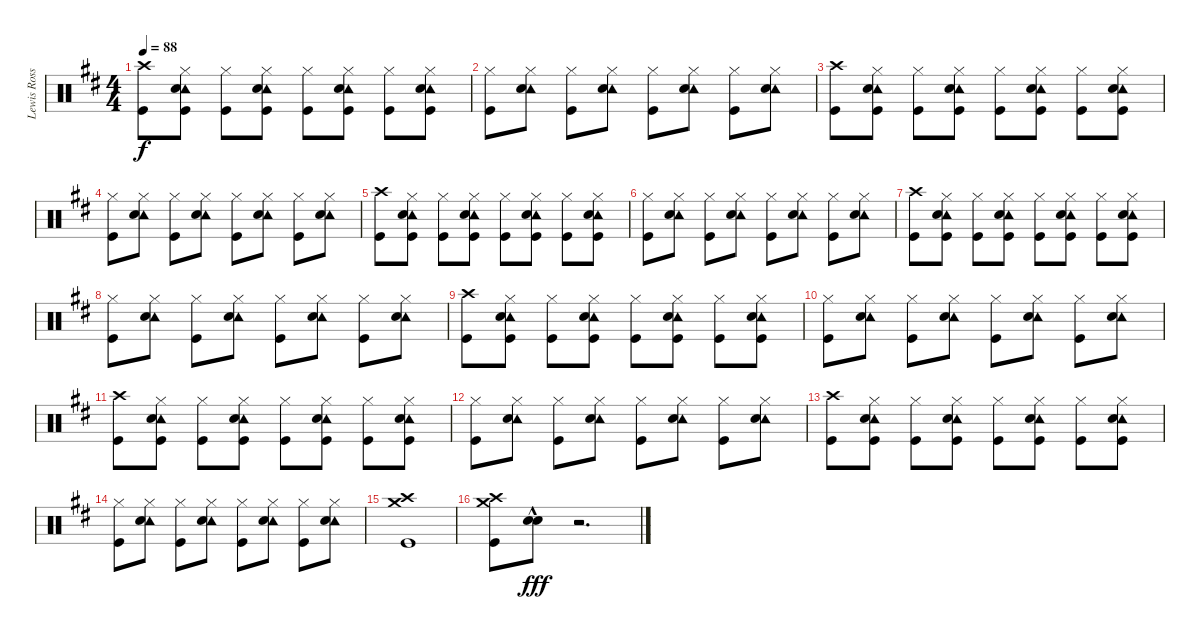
\track ("Lewis Ross Drums" "Lewis Ross") {instrument percussion}
\staff {score}
\articulation defaults
\ts (4 4)
\tempo 88
\clef neutral
\ks d
("Crash high (hit)" "Kick (hit)").8{dy f} ("Hi-Hat (closed)" "Tambourine (hit)" "Snare (hit) 2" "Kick (hit)").8 ("Hi-Hat (closed)" "Kick (hit)").8 ("Hi-Hat (closed)" "Tambourine (hit)" "Snare (hit) 2" "Kick (hit)").8 ("Hi-Hat (closed)" "Kick (hit)").8 ("Hi-Hat (closed)" "Tambourine (hit)" "Snare (hit) 2" "Kick (hit)").8 ("Hi-Hat (closed)" "Kick (hit)").8 ("Hi-Hat (closed)" "Tambourine (hit)" "Snare (hit) 2" "Kick (hit)").8 |
("Hi-Hat (closed)" "Kick (hit)").8 ("Hi-Hat (closed)" "Tambourine (hit)" "Snare (hit) 2").8 ("Hi-Hat (closed)" "Kick (hit)").8 ("Hi-Hat (closed)" "Tambourine (hit)" "Snare (hit) 2").8 ("Hi-Hat (closed)" "Kick (hit)").8 ("Hi-Hat (closed)" "Tambourine (hit)" "Snare (hit) 2").8 ("Hi-Hat (closed)" "Kick (hit)").8 ("Hi-Hat (closed)" "Tambourine (hit)" "Snare (hit) 2").8 |
("Crash high (hit)" "Kick (hit)").8 ("Hi-Hat (closed)" "Tambourine (hit)" "Snare (hit) 2" "Kick (hit)").8 ("Hi-Hat (closed)" "Kick (hit)").8 ("Hi-Hat (closed)" "Tambourine (hit)" "Snare (hit) 2" "Kick (hit)").8 ("Hi-Hat (closed)" "Kick (hit)").8 ("Hi-Hat (closed)" "Tambourine (hit)" "Snare (hit) 2" "Kick (hit)").8 ("Hi-Hat (closed)" "Kick (hit)").8 ("Hi-Hat (closed)" "Tambourine (hit)" "Snare (hit) 2" "Kick (hit)").8 |
("Hi-Hat (closed)" "Kick (hit)").8 ("Hi-Hat (closed)" "Tambourine (hit)" "Snare (hit) 2").8 ("Hi-Hat (closed)" "Kick (hit)").8 ("Hi-Hat (closed)" "Tambourine (hit)" "Snare (hit) 2").8 ("Hi-Hat (closed)" "Kick (hit)").8 ("Hi-Hat (closed)" "Tambourine (hit)" "Snare (hit) 2").8 ("Hi-Hat (closed)" "Kick (hit)").8 ("Hi-Hat (closed)" "Tambourine (hit)" "Snare (hit) 2").8 |
("Crash high (hit)" "Kick (hit)").8 ("Hi-Hat (closed)" "Tambourine (hit)" "Snare (hit) 2" "Kick (hit)").8 ("Hi-Hat (closed)" "Kick (hit)").8 ("Hi-Hat (closed)" "Tambourine (hit)" "Snare (hit) 2" "Kick (hit)").8 ("Hi-Hat (closed)" "Kick (hit)").8 ("Hi-Hat (closed)" "Tambourine (hit)" "Snare (hit) 2" "Kick (hit)").8 ("Hi-Hat (closed)" "Kick (hit)").8 ("Hi-Hat (closed)" "Tambourine (hit)" "Snare (hit) 2" "Kick (hit)").8 |
("Hi-Hat (closed)" "Kick (hit)").8 ("Hi-Hat (closed)" "Tambourine (hit)" "Snare (hit) 2").8 ("Hi-Hat (closed)" "Kick (hit)").8 ("Hi-Hat (closed)" "Tambourine (hit)" "Snare (hit) 2").8 ("Hi-Hat (closed)" "Kick (hit)").8 ("Hi-Hat (closed)" "Tambourine (hit)" "Snare (hit) 2").8 ("Hi-Hat (closed)" "Kick (hit)").8 ("Hi-Hat (closed)" "Tambourine (hit)" "Snare (hit) 2").8 |
("Crash high (hit)" "Kick (hit)").8 ("Hi-Hat (closed)" "Tambourine (hit)" "Snare (hit) 2" "Kick (hit)").8 ("Hi-Hat (closed)" "Kick (hit)").8 ("Hi-Hat (closed)" "Tambourine (hit)" "Snare (hit) 2" "Kick (hit)").8 ("Hi-Hat (closed)" "Kick (hit)").8 ("Hi-Hat (closed)" "Tambourine (hit)" "Snare (hit) 2" "Kick (hit)").8 ("Hi-Hat (closed)" "Kick (hit)").8 ("Hi-Hat (closed)" "Tambourine (hit)" "Snare (hit) 2" "Kick (hit)").8 |
("Hi-Hat (closed)" "Kick (hit)").8 ("Hi-Hat (closed)" "Tambourine (hit)" "Snare (hit) 2").8 ("Hi-Hat (closed)" "Kick (hit)").8 ("Hi-Hat (closed)" "Tambourine (hit)" "Snare (hit) 2").8 ("Hi-Hat (closed)" "Kick (hit)").8 ("Hi-Hat (closed)" "Tambourine (hit)" "Snare (hit) 2").8 ("Hi-Hat (closed)" "Kick (hit)").8 ("Hi-Hat (closed)" "Tambourine (hit)" "Snare (hit) 2").8 |
("Crash high (hit)" "Kick (hit)").8 ("Hi-Hat (closed)" "Tambourine (hit)" "Snare (hit) 2" "Kick (hit)").8 ("Hi-Hat (closed)" "Kick (hit)").8 ("Hi-Hat (closed)" "Tambourine (hit)" "Snare (hit) 2" "Kick (hit)").8 ("Hi-Hat (closed)" "Kick (hit)").8 ("Hi-Hat (closed)" "Tambourine (hit)" "Snare (hit) 2" "Kick (hit)").8 ("Hi-Hat (closed)" "Kick (hit)").8 ("Hi-Hat (closed)" "Tambourine (hit)" "Snare (hit) 2" "Kick (hit)").8 |
("Hi-Hat (closed)" "Kick (hit)").8 ("Hi-Hat (closed)" "Tambourine (hit)" "Snare (hit) 2").8 ("Hi-Hat (closed)" "Kick (hit)").8 ("Hi-Hat (closed)" "Tambourine (hit)" "Snare (hit) 2").8 ("Hi-Hat (closed)" "Kick (hit)").8 ("Hi-Hat (closed)" "Tambourine (hit)" "Snare (hit) 2").8 ("Hi-Hat (closed)" "Kick (hit)").8 ("Hi-Hat (closed)" "Tambourine (hit)" "Snare (hit) 2").8 |
("Crash high (hit)" "Kick (hit)").8 ("Hi-Hat (closed)" "Tambourine (hit)" "Snare (hit) 2" "Kick (hit)").8 ("Hi-Hat (closed)" "Kick (hit)").8 ("Hi-Hat (closed)" "Tambourine (hit)" "Snare (hit) 2" "Kick (hit)").8 ("Hi-Hat (closed)" "Kick (hit)").8 ("Hi-Hat (closed)" "Tambourine (hit)" "Snare (hit) 2" "Kick (hit)").8 ("Hi-Hat (closed)" "Kick (hit)").8 ("Hi-Hat (closed)" "Tambourine (hit)" "Snare (hit) 2" "Kick (hit)").8 |
("Hi-Hat (closed)" "Kick (hit)").8 ("Hi-Hat (closed)" "Tambourine (hit)" "Snare (hit) 2").8 ("Hi-Hat (closed)" "Kick (hit)").8 ("Hi-Hat (closed)" "Tambourine (hit)" "Snare (hit) 2").8 ("Hi-Hat (closed)" "Kick (hit)").8 ("Hi-Hat (closed)" "Tambourine (hit)" "Snare (hit) 2").8 ("Hi-Hat (closed)" "Kick (hit)").8 ("Hi-Hat (closed)" "Tambourine (hit)" "Snare (hit) 2").8 |
("Crash high (hit)" "Kick (hit)").8 ("Hi-Hat (closed)" "Tambourine (hit)" "Snare (hit) 2" "Kick (hit)").8 ("Hi-Hat (closed)" "Kick (hit)").8 ("Hi-Hat (closed)" "Tambourine (hit)" "Snare (hit) 2" "Kick (hit)").8 ("Hi-Hat (closed)" "Kick (hit)").8 ("Hi-Hat (closed)" "Tambourine (hit)" "Snare (hit) 2" "Kick (hit)").8 ("Hi-Hat (closed)" "Kick (hit)").8 ("Hi-Hat (closed)" "Tambourine (hit)" "Snare (hit) 2" "Kick (hit)").8 |
("Hi-Hat (closed)" "Kick (hit)").8 ("Hi-Hat (closed)" "Tambourine (hit)" "Snare (hit) 2").8 ("Hi-Hat (closed)" "Kick (hit)").8 ("Hi-Hat (closed)" "Tambourine (hit)" "Snare (hit) 2").8 ("Hi-Hat (closed)" "Kick (hit)").8 ("Hi-Hat (closed)" "Tambourine (hit)" "Snare (hit) 2").8 ("Hi-Hat (closed)" "Kick (hit)").8 ("Hi-Hat (closed)" "Tambourine (hit)" "Snare (hit) 2").8 |
("Crash high (hit)" "Crash medium (hit)" "Kick (hit)").1 |
("Crash high (hit)" "Crash medium (hit)" "Kick (hit)").8 ("Snare (hit) 2" "Snare (hit) 2"{hac}).8{dy fff} r.2{d}
